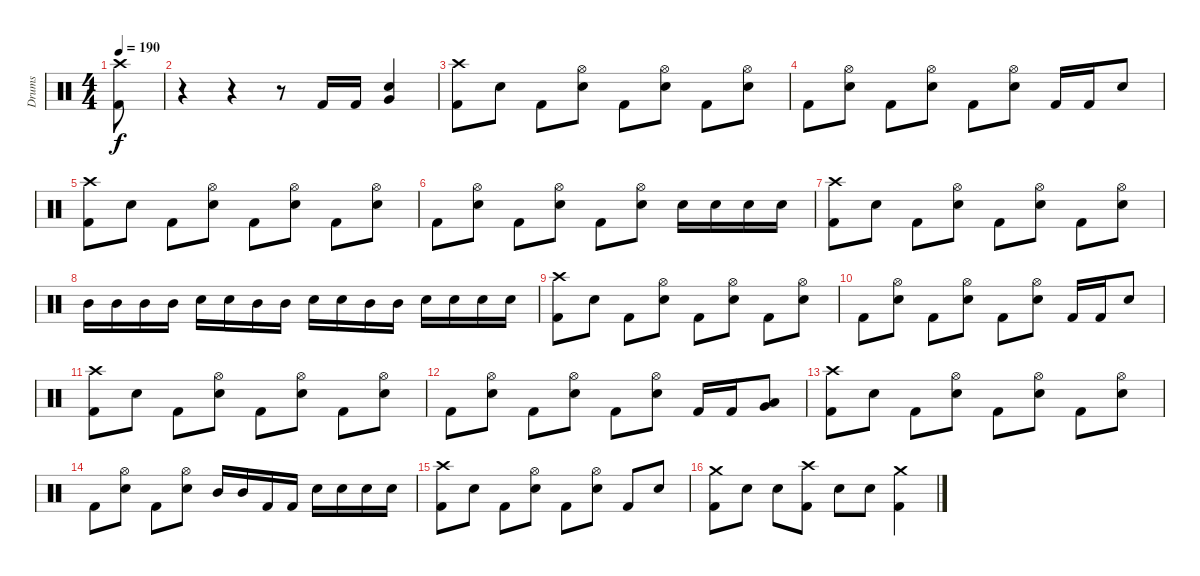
\track ("Drums" "Drums") {instrument percussion}
\staff {score}
\articulation defaults
\ts (4 4)
\tempo 190
\clef neutral
\ks c
("Crash high (hit)" "Kick (hit) 2").8{dy f} |
r.4 r.4 r.8 "Kick (hit) 2".16 "Kick (hit) 2".16 ("Electric Snare (hit)" "Very Low Tom (hit)").4 |
("Crash high (hit)" "Kick (hit) 2").8 "Electric Snare (hit)".8 "Kick (hit) 2".8 ("Hi-Hat (open)" "Electric Snare (hit)").8 "Kick (hit) 2".8 ("Hi-Hat (open)" "Electric Snare (hit)").8 "Kick (hit) 2".8 ("Hi-Hat (open)" "Electric Snare (hit)").8 |
"Kick (hit) 2".8 ("Hi-Hat (open)" "Electric Snare (hit)").8 "Kick (hit) 2".8 ("Hi-Hat (open)" "Electric Snare (hit)").8 "Kick (hit) 2".8 ("Hi-Hat (open)" "Electric Snare (hit)").8 "Kick (hit) 2".16 "Kick (hit) 2".16 "Electric Snare (hit)".8 |
("Crash high (hit)" "Kick (hit) 2").8 "Electric Snare (hit)".8 "Kick (hit) 2".8 ("Hi-Hat (open)" "Electric Snare (hit)").8 "Kick (hit) 2".8 ("Hi-Hat (open)" "Electric Snare (hit)").8 "Kick (hit) 2".8 ("Hi-Hat (open)" "Electric Snare (hit)").8 |
"Kick (hit) 2".8 ("Hi-Hat (open)" "Electric Snare (hit)").8 "Kick (hit) 2".8 ("Hi-Hat (open)" "Electric Snare (hit)").8 "Kick (hit) 2".8 ("Hi-Hat (open)" "Electric Snare (hit)").8 "Electric Snare (hit)".16 "Electric Snare (hit)".16 "Electric Snare (hit)".16 "Electric Snare (hit)".16 |
("Crash high (hit)" "Kick (hit) 2").8 "Electric Snare (hit)".8 "Kick (hit) 2".8 ("Hi-Hat (open)" "Electric Snare (hit)").8 "Kick (hit) 2".8 ("Hi-Hat (open)" "Electric Snare (hit)").8 "Kick (hit) 2".8 ("Hi-Hat (open)" "Electric Snare (hit)").8 |
"Mid Tom (hit)".16 "Mid Tom (hit)".16 "Mid Tom (hit)".16 "Mid Tom (hit)".16 "Electric Snare (hit)".16 "Electric Snare (hit)".16 "Mid Tom (hit)".16 "Mid Tom (hit)".16 "Electric Snare (hit)".16 "Electric Snare (hit)".16 "Mid Tom (hit)".16 "Mid Tom (hit)".16 "Electric Snare (hit)".16 "Electric Snare (hit)".16 "Electric Snare (hit)".16 "Electric Snare (hit)".16 |
("Crash high (hit)" "Kick (hit) 2").8 "Electric Snare (hit)".8 "Kick (hit) 2".8 ("Hi-Hat (open)" "Electric Snare (hit)").8 "Kick (hit) 2".8 ("Hi-Hat (open)" "Electric Snare (hit)").8 "Kick (hit) 2".8 ("Hi-Hat (open)" "Electric Snare (hit)").8 |
"Kick (hit) 2".8 ("Hi-Hat (open)" "Electric Snare (hit)").8 "Kick (hit) 2".8 ("Hi-Hat (open)" "Electric Snare (hit)").8 "Kick (hit) 2".8 ("Hi-Hat (open)" "Electric Snare (hit)").8 "Kick (hit) 2".16 "Kick (hit) 2".16 "Electric Snare (hit)".8 |
("Crash high (hit)" "Kick (hit) 2").8 "Electric Snare (hit)".8 "Kick (hit) 2".8 ("Hi-Hat (open)" "Electric Snare (hit)").8 "Kick (hit) 2".8 ("Hi-Hat (open)" "Electric Snare (hit)").8 "Kick (hit) 2".8 ("Hi-Hat (open)" "Electric Snare (hit)").8 |
"Kick (hit) 2".8 ("Hi-Hat (open)" "Electric Snare (hit)").8 "Kick (hit) 2".8 ("Hi-Hat (open)" "Electric Snare (hit)").8 "Kick (hit) 2".8 ("Hi-Hat (open)" "Electric Snare (hit)").8 "Kick (hit) 2".16 "Kick (hit) 2".16 ("Low Tom (hit)" "Very Low Tom (hit)").8 |
("Crash high (hit)" "Kick (hit) 2").8 "Electric Snare (hit)".8 "Kick (hit) 2".8 ("Hi-Hat (open)" "Electric Snare (hit)").8 "Kick (hit) 2".8 ("Hi-Hat (open)" "Electric Snare (hit)").8 "Kick (hit) 2".8 ("Hi-Hat (open)" "Electric Snare (hit)").8 |
"Kick (hit) 2".8 ("Hi-Hat (open)" "Electric Snare (hit)").8 "Kick (hit) 2".8 ("Hi-Hat (open)" "Electric Snare (hit)").8 "Mid Tom (hit)".16 "Mid Tom (hit)".16 "Kick (hit) 2".16 "Kick (hit) 2".16 "Electric Snare (hit)".16 "Electric Snare (hit)".16 "Electric Snare (hit)".16 "Electric Snare (hit)".16 |
("Crash high (hit)" "Kick (hit) 2").8 "Electric Snare (hit)".8 "Kick (hit) 2".8 ("Hi-Hat (open)" "Electric Snare (hit)").8 "Kick (hit) 2".8 ("Hi-Hat (open)" "Electric Snare (hit)").8 "Kick (hit) 2".8 "Electric Snare (hit)".8 |
("Crash medium (hit)" "Kick (hit) 2").8 "Electric Snare (hit)".8 "Electric Snare (hit)".8 ("Crash high (hit)" "Kick (hit) 2").8 "Electric Snare (hit)".8 "Electric Snare (hit)".8 ("Crash medium (hit)" "Kick (hit) 2").4
